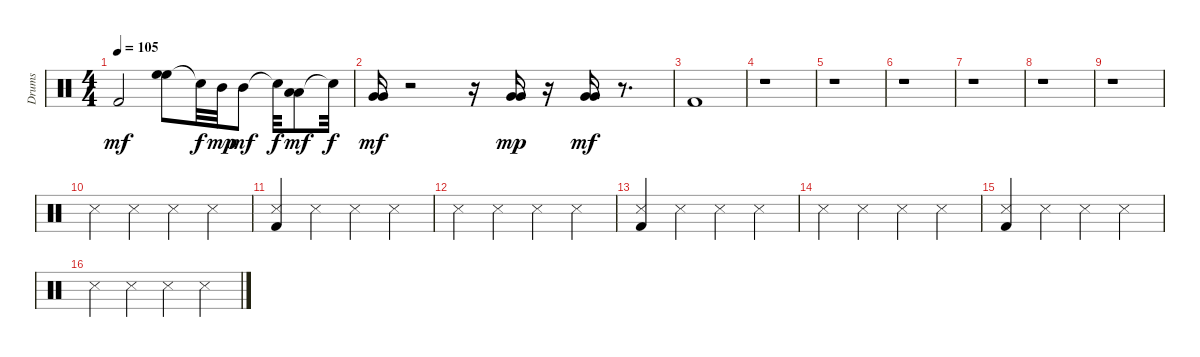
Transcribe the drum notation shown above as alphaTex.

\track ("Drums" "Drums") {instrument percussion}
\staff {score}
\articulation defaults
\ts (4 4)
\tempo 105
\clef neutral
\ks c "Kick (hit) 2".2{dy mf}
("High Floor Tom (hit)" "High Floor Tom (hit)").8 "Snare (hit)"{t}.32{dy f} "Mid Tom (hit)".32{dy mp} "Mid Tom (hit)".8{dy mf} "Snare (hit)"{t}.32{dy f} ("Low Tom (hit)" "Low Tom (hit)").8{dy mf} "Snare (hit)"{t}.32{dy f} |
("Very Low Tom (hit)" "Very Low Tom (hit)").16{dy mf} r.2 r.16 ("Very Low Tom (hit)" "Very Low Tom (hit)").16{dy mp} r.16 ("Very Low Tom (hit)" "Very Low Tom (hit)").16{dy mf} r.8{d} |
"Kick (hit) 2".1 |
r.1 |
r.1 |
r.1 |
r.1 |
r.1 |
r.1 |
"Snare (side stick) 3".4 "Snare (side stick) 3".4 "Snare (side stick) 3".4 "Snare (side stick) 3".4 |
("Kick (hit) 2" "Snare (side stick) 3").4 "Snare (side stick) 3".4 "Snare (side stick) 3".4 "Snare (side stick) 3".4 |
"Snare (side stick) 3".4 "Snare (side stick) 3".4 "Snare (side stick) 3".4 "Snare (side stick) 3".4 |
("Kick (hit) 2" "Snare (side stick) 3").4 "Snare (side stick) 3".4 "Snare (side stick) 3".4 "Snare (side stick) 3".4 |
"Snare (side stick) 3".4 "Snare (side stick) 3".4 "Snare (side stick) 3".4 "Snare (side stick) 3".4 |
("Kick (hit) 2" "Snare (side stick) 3").4 "Snare (side stick) 3".4 "Snare (side stick) 3".4 "Snare (side stick) 3".4 |
"Snare (side stick) 3".4 "Snare (side stick) 3".4 "Snare (side stick) 3".4 "Snare (side stick) 3".4
